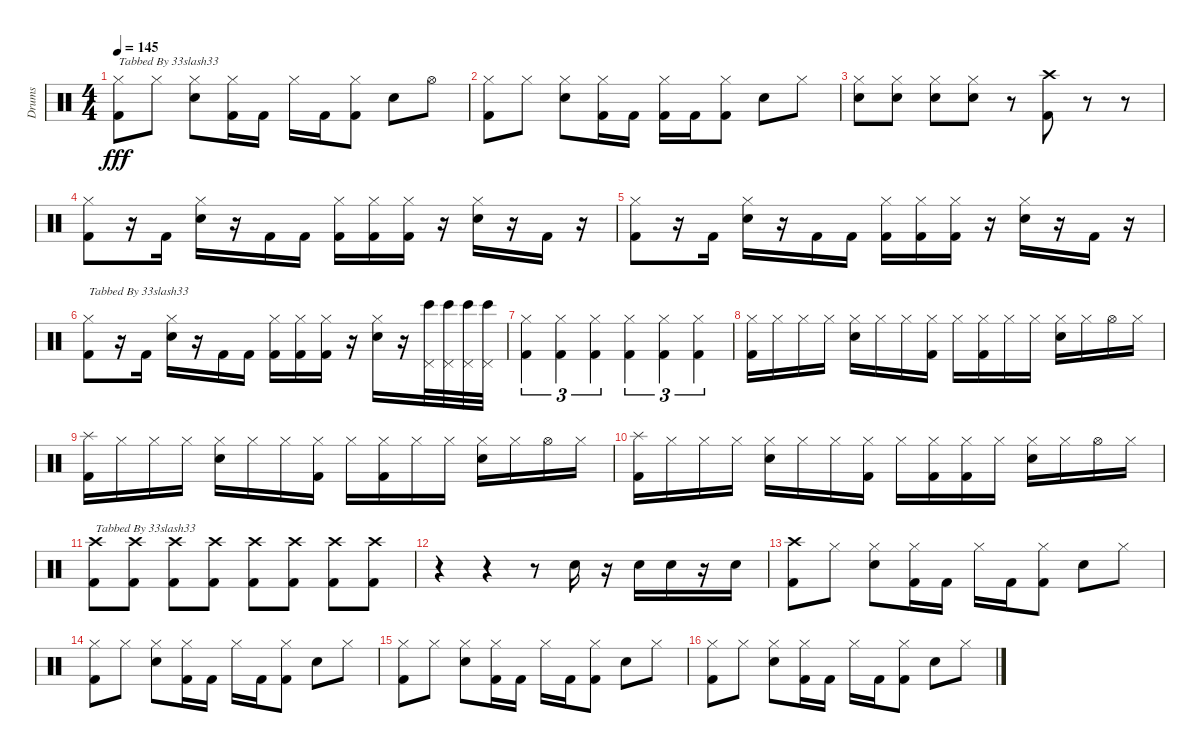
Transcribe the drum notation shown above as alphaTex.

\track ("Drums" "Drums") {instrument percussion}
\staff {score}
\articulation defaults
\ts (4 4)
\tempo 145
\clef neutral
\ks c
("Hi-Hat (closed)" "Kick (hit) 2").8{txt "Tabbed By 33slash33" dy fff} "Hi-Hat (closed)".8 ("Hi-Hat (closed)" "Snare (hit) 2").8 ("Hi-Hat (closed)" "Kick (hit) 2").16 "Kick (hit) 2".16 "Hi-Hat (closed)".16 "Kick (hit) 2".16 ("Hi-Hat (closed)" "Kick (hit) 2").8 "Snare (hit) 2".8 "Hi-Hat (open)".8 |
("Hi-Hat (closed)" "Kick (hit) 2").8 "Hi-Hat (closed)".8 ("Hi-Hat (closed)" "Snare (hit) 2").8 ("Hi-Hat (closed)" "Kick (hit) 2").16 "Kick (hit) 2".16 ("Hi-Hat (closed)" "Kick (hit) 2").16 "Kick (hit) 2".16 ("Hi-Hat (closed)" "Kick (hit) 2").8 "Snare (hit) 2".8 "Hi-Hat (closed)".8 |
("Hi-Hat (closed)" "Snare (hit) 2").8 ("Hi-Hat (closed)" "Snare (hit) 2").8 ("Hi-Hat (closed)" "Snare (hit) 2").8 ("Hi-Hat (closed)" "Snare (hit) 2").8 r.8 ("Crash high (hit)" "Kick (hit) 2").8 r.8 r.8 |
("Hi-Hat (closed)" "Kick (hit) 2").8 r.16 "Kick (hit) 2".16 ("Hi-Hat (closed)" "Snare (hit) 2").16 r.16 "Kick (hit) 2".16 "Kick (hit) 2".16 ("Hi-Hat (closed)" "Kick (hit) 2").16 ("Hi-Hat (closed)" "Kick (hit) 2").16 ("Hi-Hat (closed)" "Kick (hit) 2").16 r.16 ("Hi-Hat (closed)" "Snare (hit) 2").16 r.16 "Kick (hit) 2".16 r.16 |
("Hi-Hat (closed)" "Kick (hit) 2").8 r.16 "Kick (hit) 2".16 ("Hi-Hat (closed)" "Snare (hit) 2").16 r.16 "Kick (hit) 2".16 "Kick (hit) 2".16 ("Hi-Hat (closed)" "Kick (hit) 2").16 ("Hi-Hat (closed)" "Kick (hit) 2").16 ("Hi-Hat (closed)" "Kick (hit) 2").16 r.16 ("Hi-Hat (closed)" "Snare (hit) 2").16 r.16 "Kick (hit) 2".16 r.16 |
("Hi-Hat (closed)" "Kick (hit) 2").8{txt "Tabbed By 33slash33"} r.16 "Kick (hit) 2".16 ("Hi-Hat (closed)" "Snare (hit) 2").16 r.16 "Kick (hit) 2".16 "Kick (hit) 2".16 ("Hi-Hat (closed)" "Kick (hit) 2").16 ("Hi-Hat (closed)" "Kick (hit) 2").16 ("Hi-Hat (closed)" "Kick (hit) 2").16 r.16 ("Hi-Hat (closed)" "Snare (hit) 2").16 r.16 ("Bongo High (hit)" "Pedal Hi-Hat (hit)").32 ("Bongo High (hit)" "Pedal Hi-Hat (hit)").32 ("Bongo High (hit)" "Pedal Hi-Hat (hit)").32 ("Bongo High (hit)" "Pedal Hi-Hat (hit)").32 |
("Hi-Hat (closed)" "Kick (hit) 2").4{tu (3 2)} ("Hi-Hat (closed)" "Kick (hit) 2").4{tu (3 2)} ("Hi-Hat (closed)" "Kick (hit) 2").4{tu (3 2)} ("Hi-Hat (closed)" "Kick (hit) 2").4{tu (3 2)} ("Hi-Hat (closed)" "Kick (hit) 2").4{tu (3 2)} ("Hi-Hat (closed)" "Kick (hit) 2").4{tu (3 2)} |
("Hi-Hat (closed)" "Kick (hit) 2").16 "Hi-Hat (closed)".16 "Hi-Hat (closed)".16 "Hi-Hat (closed)".16 ("Hi-Hat (closed)" "Snare (hit) 2").16 "Hi-Hat (closed)".16 "Hi-Hat (closed)".16 ("Hi-Hat (closed)" "Kick (hit) 2").16 "Hi-Hat (closed)".16 ("Hi-Hat (closed)" "Kick (hit) 2").16 "Hi-Hat (closed)".16 "Hi-Hat (closed)".16 ("Hi-Hat (closed)" "Snare (hit) 2").16 "Hi-Hat (closed)".16 "Hi-Hat (open)".16 "Hi-Hat (closed)".16 |
("Splash (hit)" "Kick (hit) 2").16 "Hi-Hat (closed)".16 "Hi-Hat (closed)".16 "Hi-Hat (closed)".16 ("Hi-Hat (closed)" "Snare (hit) 2").16 "Hi-Hat (closed)".16 "Hi-Hat (closed)".16 ("Hi-Hat (closed)" "Kick (hit) 2").16 "Hi-Hat (closed)".16 ("Hi-Hat (closed)" "Kick (hit) 2").16 "Hi-Hat (closed)".16 "Hi-Hat (closed)".16 ("Hi-Hat (closed)" "Snare (hit) 2").16 "Hi-Hat (closed)".16 "Hi-Hat (open)".16 "Hi-Hat (closed)".16 |
("Splash (hit)" "Kick (hit) 2").16 "Hi-Hat (closed)".16 "Hi-Hat (closed)".16 "Hi-Hat (closed)".16 ("Hi-Hat (closed)" "Snare (hit) 2").16 "Hi-Hat (closed)".16 "Hi-Hat (closed)".16 ("Hi-Hat (closed)" "Kick (hit) 2").16 "Hi-Hat (closed)".16 ("Hi-Hat (closed)" "Kick (hit) 2").16 ("Hi-Hat (closed)" "Kick (hit) 2").16 "Hi-Hat (closed)".16 ("Hi-Hat (closed)" "Snare (hit) 2").16 "Hi-Hat (closed)".16 "Hi-Hat (open)".16 "Hi-Hat (closed)".16 |
("Crash high (hit)" "Kick (hit) 2").8{txt "Tabbed By 33slash33"} ("Crash high (hit)" "Kick (hit) 2").8 ("Crash high (hit)" "Kick (hit) 2").8 ("Crash high (hit)" "Kick (hit) 2").8 ("Crash high (hit)" "Kick (hit) 2").8 ("Crash high (hit)" "Kick (hit) 2").8 ("Crash high (hit)" "Kick (hit) 2").8 ("Crash high (hit)" "Kick (hit) 2").8 |
r.4 r.4 r.8 "Snare (hit) 2".16 r.16 "Snare (hit) 2".16 "Snare (hit) 2".16 r.16 "Snare (hit) 2".16 |
("Crash high (hit)" "Kick (hit) 2").8 "Hi-Hat (closed)".8 ("Hi-Hat (closed)" "Snare (hit) 2").8 ("Hi-Hat (closed)" "Kick (hit) 2").16 "Kick (hit) 2".16 "Hi-Hat (closed)".16 "Kick (hit) 2".16 ("Hi-Hat (closed)" "Kick (hit) 2").8 "Snare (hit) 2".8 "Hi-Hat (closed)".8 |
("Hi-Hat (closed)" "Kick (hit) 2").8 "Hi-Hat (closed)".8 ("Hi-Hat (closed)" "Snare (hit) 2").8 ("Hi-Hat (closed)" "Kick (hit) 2").16 "Kick (hit) 2".16 "Hi-Hat (closed)".16 "Kick (hit) 2".16 ("Hi-Hat (closed)" "Kick (hit) 2").8 "Snare (hit) 2".8 "Hi-Hat (closed)".8 |
("Hi-Hat (closed)" "Kick (hit) 2").8 "Hi-Hat (closed)".8 ("Hi-Hat (closed)" "Snare (hit) 2").8 ("Hi-Hat (closed)" "Kick (hit) 2").16 "Kick (hit) 2".16 "Hi-Hat (closed)".16 "Kick (hit) 2".16 ("Hi-Hat (closed)" "Kick (hit) 2").8 "Snare (hit) 2".8 "Hi-Hat (closed)".8 |
("Hi-Hat (closed)" "Kick (hit) 2").8 "Hi-Hat (closed)".8 ("Hi-Hat (closed)" "Snare (hit) 2").8 ("Hi-Hat (closed)" "Kick (hit) 2").16 "Kick (hit) 2".16 "Hi-Hat (closed)".16 "Kick (hit) 2".16 ("Hi-Hat (closed)" "Kick (hit) 2").8 "Snare (hit) 2".8 "Hi-Hat (closed)".8
